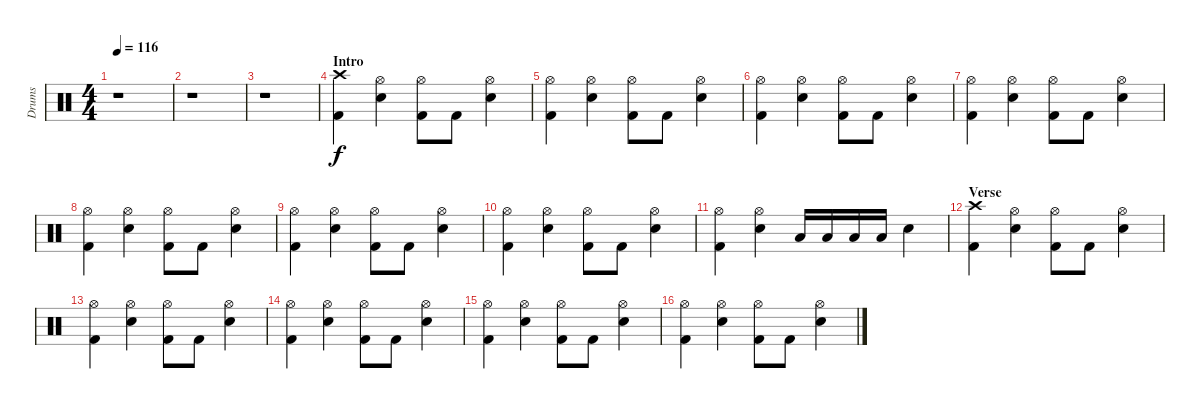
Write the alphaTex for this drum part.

\track ("Drums" "Drums") {instrument percussion}
\staff {score}
\articulation defaults
\ts (4 4)
\tempo 116
\clef neutral
\ks c
r.1{dy f} |
r.1 |
r.1 |
\section ("" "Intro")
("Crash high (hit)" "Kick (hit) 2").4 ("Hi-Hat (open)" "Electric Snare (hit)").4 ("Hi-Hat (open)" "Kick (hit) 2").8 "Kick (hit) 2".8 ("Hi-Hat (open)" "Electric Snare (hit)").4 |
("Hi-Hat (open)" "Kick (hit) 2").4 ("Hi-Hat (open)" "Electric Snare (hit)").4 ("Hi-Hat (open)" "Kick (hit) 2").8 "Kick (hit) 2".8 ("Hi-Hat (open)" "Electric Snare (hit)").4 |
("Hi-Hat (open)" "Kick (hit) 2").4 ("Hi-Hat (open)" "Electric Snare (hit)").4 ("Hi-Hat (open)" "Kick (hit) 2").8 "Kick (hit) 2".8 ("Hi-Hat (open)" "Electric Snare (hit)").4 |
("Hi-Hat (open)" "Kick (hit) 2").4 ("Hi-Hat (open)" "Electric Snare (hit)").4 ("Hi-Hat (open)" "Kick (hit) 2").8 "Kick (hit) 2".8 ("Hi-Hat (open)" "Electric Snare (hit)").4 |
("Hi-Hat (open)" "Kick (hit) 2").4 ("Hi-Hat (open)" "Electric Snare (hit)").4 ("Hi-Hat (open)" "Kick (hit) 2").8 "Kick (hit) 2".8 ("Hi-Hat (open)" "Electric Snare (hit)").4 |
("Hi-Hat (open)" "Kick (hit) 2").4 ("Hi-Hat (open)" "Electric Snare (hit)").4 ("Hi-Hat (open)" "Kick (hit) 2").8 "Kick (hit) 2".8 ("Hi-Hat (open)" "Electric Snare (hit)").4 |
("Hi-Hat (open)" "Kick (hit) 2").4 ("Hi-Hat (open)" "Electric Snare (hit)").4 ("Hi-Hat (open)" "Kick (hit) 2").8 "Kick (hit) 2".8 ("Hi-Hat (open)" "Electric Snare (hit)").4 |
("Hi-Hat (open)" "Kick (hit) 2").4 ("Hi-Hat (open)" "Electric Snare (hit)").4 "Low Tom (hit)".16 "Low Tom (hit)".16 "Low Floor Tom (hit)".16 "Low Floor Tom (hit)".16 "Electric Snare (hit)".4 |
\section ("" "Verse")
("Crash high (hit)" "Kick (hit) 2").4 ("Hi-Hat (open)" "Electric Snare (hit)").4 ("Hi-Hat (open)" "Kick (hit) 2").8 "Kick (hit) 2".8 ("Hi-Hat (open)" "Electric Snare (hit)").4 |
("Hi-Hat (open)" "Kick (hit) 2").4 ("Hi-Hat (open)" "Electric Snare (hit)").4 ("Hi-Hat (open)" "Kick (hit) 2").8 "Kick (hit) 2".8 ("Hi-Hat (open)" "Electric Snare (hit)").4 |
("Hi-Hat (open)" "Kick (hit) 2").4 ("Hi-Hat (open)" "Electric Snare (hit)").4 ("Hi-Hat (open)" "Kick (hit) 2").8 "Kick (hit) 2".8 ("Hi-Hat (open)" "Electric Snare (hit)").4 |
("Hi-Hat (open)" "Kick (hit) 2").4 ("Hi-Hat (open)" "Electric Snare (hit)").4 ("Hi-Hat (open)" "Kick (hit) 2").8 "Kick (hit) 2".8 ("Hi-Hat (open)" "Electric Snare (hit)").4 |
("Hi-Hat (open)" "Kick (hit) 2").4 ("Hi-Hat (open)" "Electric Snare (hit)").4 ("Hi-Hat (open)" "Kick (hit) 2").8 "Kick (hit) 2".8 ("Hi-Hat (open)" "Electric Snare (hit)").4
